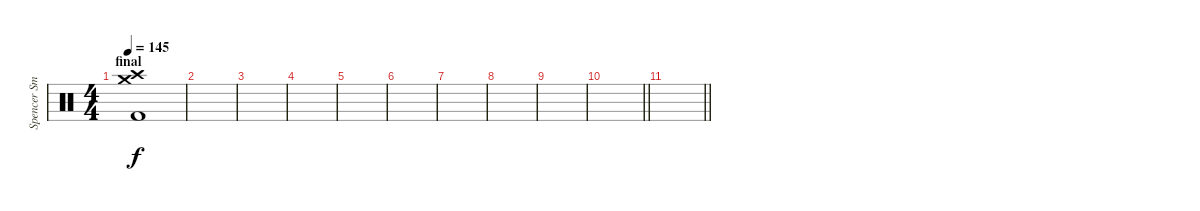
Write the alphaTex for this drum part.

\track ("Spencer Smith" "Spencer Sm") {instrument percussion}
\staff {score}
\articulation defaults
\ts (4 4)
\section ("" "final")
\tempo 145
\clef neutral
\ks c
("Crash high (hit)"{t} "Crash medium (hit)"{t} "Kick (hit) 2"{t}).1{dy f} |
|
|
|
|
|
|
|
|
\barLineRight lightlight
|
\barLineRight lightlight
